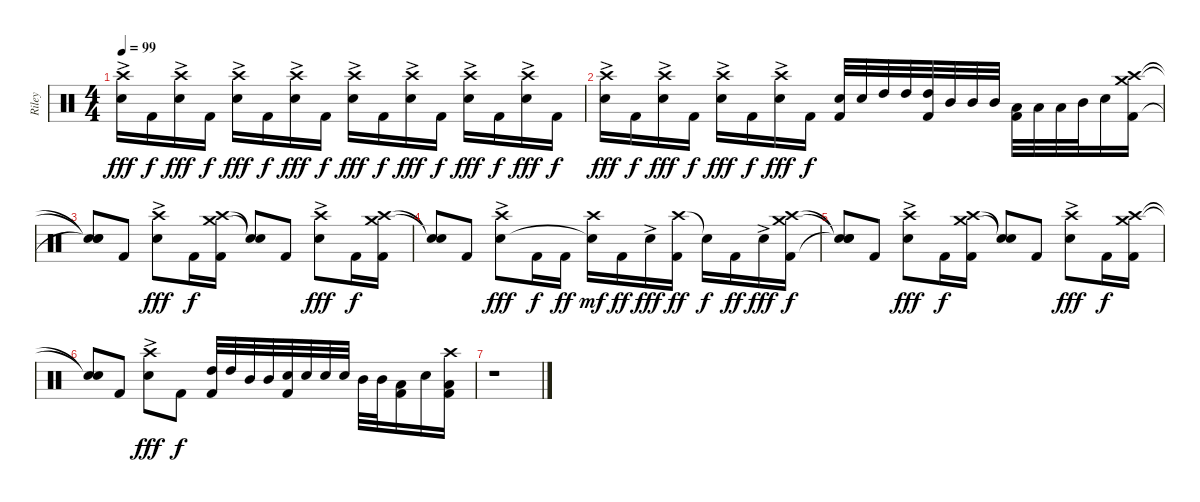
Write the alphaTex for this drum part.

\track ("Riley" "Riley") {instrument percussion}
\staff {score}
\articulation defaults
\ts (4 4)
\tempo 99
\clef neutral
\ks c
("Crash high (hit)" "Electric Snare (hit)"{ac}).16{dy fff} "Kick (hit) 2".16{dy f} ("Crash high (hit)" "Electric Snare (hit)"{ac}).16{dy fff} "Kick (hit) 2".16{dy f} ("Crash high (hit)" "Electric Snare (hit)"{ac}).16{dy fff} "Kick (hit) 2".16{dy f} ("Crash high (hit)" "Electric Snare (hit)"{ac}).16{dy fff} "Kick (hit) 2".16{dy f} ("Crash high (hit)" "Electric Snare (hit)"{ac}).16{dy fff} "Kick (hit) 2".16{dy f} ("Crash high (hit)" "Electric Snare (hit)"{ac}).16{dy fff} "Kick (hit) 2".16{dy f} ("Crash high (hit)" "Electric Snare (hit)"{ac}).16{dy fff} "Kick (hit) 2".16{dy f} ("Crash high (hit)" "Electric Snare (hit)"{ac}).16{dy fff} "Kick (hit) 2".16{dy f} |
("Crash high (hit)" "Electric Snare (hit)"{ac}).16{dy fff} "Kick (hit) 2".16{dy f} ("Crash high (hit)" "Electric Snare (hit)"{ac}).16{dy fff} "Kick (hit) 2".16{dy f} ("Crash high (hit)" "Electric Snare (hit)"{ac}).16{dy fff} "Kick (hit) 2".16{dy f} ("Crash high (hit)" "Electric Snare (hit)"{ac}).16{dy fff} "Kick (hit) 2".16{dy f} ("Electric Snare (hit)" "Kick (hit) 2").32 "Electric Snare (hit)".32 "High Tom (hit)".32 "High Tom (hit)".32 ("High Tom (hit)" "Kick (hit) 2").32 "Mid Tom (hit)".32 "Mid Tom (hit)".32 "Mid Tom (hit)".32 ("Low Tom (hit)" "Kick (hit) 2").32 "Low Tom (hit)".32 "Low Tom (hit)".32 "Mid Tom (hit)".32 "Electric Snare (hit)".16 ("Crash high (hit)" "Crash medium (hit)" "Kick (hit) 2").16 |
("Snare (hit)"{t} "Snare (hit)"{t} "Snare (hit)"{t}).8 "Kick (hit) 2".8 ("Crash high (hit)" "Electric Snare (hit)"{ac}).8{dy fff} "Kick (hit) 2".16{dy f} ("Crash high (hit)" "Crash medium (hit)" "Kick (hit) 2").16 ("Snare (hit)"{t} "Snare (hit)"{t}).8 "Kick (hit) 2".8 ("Crash high (hit)" "Electric Snare (hit)"{ac}).8{dy fff} "Kick (hit) 2".16{dy f} ("Crash high (hit)" "Crash medium (hit)" "Kick (hit) 2").16 |
("Snare (hit)"{t} "Snare (hit)"{t}).8 "Kick (hit) 2".8 ("Crash high (hit)" "Electric Snare (hit)"{ac}).8{dy fff} "Kick (hit) 2".16{dy f} "Kick (hit) 2".16{dy ff} ("Crash high (hit)" "Snare (hit)"{t}).16{dy mf} "Kick (hit) 2".16{dy ff} "Electric Snare (hit)"{ac}.16{dy fff} ("Crash high (hit)" "Kick (hit) 2").16{dy ff} "Snare (hit)"{t}.16{dy f} "Kick (hit) 2".16{dy ff} "Electric Snare (hit)"{ac}.16{dy fff} ("Crash high (hit)" "Crash medium (hit)" "Kick (hit) 2").16{dy f} |
("Snare (hit)"{t} "Snare (hit)"{t} "Snare (hit)"{t}).8 "Kick (hit) 2".8 ("Crash high (hit)" "Electric Snare (hit)"{ac}).8{dy fff} "Kick (hit) 2".16{dy f} ("Crash high (hit)" "Crash medium (hit)" "Kick (hit) 2").16 ("Snare (hit)"{t} "Snare (hit)"{t}).8 "Kick (hit) 2".8 ("Crash high (hit)" "Electric Snare (hit)"{ac}).8{dy fff} "Kick (hit) 2".16{dy f} ("Crash high (hit)" "Crash medium (hit)" "Kick (hit) 2").16 |
("Snare (hit)"{t} "Snare (hit)"{t}).8 "Kick (hit) 2".8 ("Crash high (hit)" "Electric Snare (hit)"{ac}).8{dy fff} "Kick (hit) 2".8{dy f} ("High Tom (hit)" "Kick (hit) 2").32 "High Tom (hit)".32 "Mid Tom (hit)".32 "Mid Tom (hit)".32 ("Electric Snare (hit)" "Kick (hit) 2").32 "Electric Snare (hit)".32 "Electric Snare (hit)".32 "Electric Snare (hit)".32 "Mid Tom (hit)".32 "Mid Tom (hit)".32 ("Low Tom (hit)" "Kick (hit) 2").16 "Electric Snare (hit)".16 ("Crash high (hit)" "Low Tom (hit)" "Kick (hit) 2").16 |
r.1
